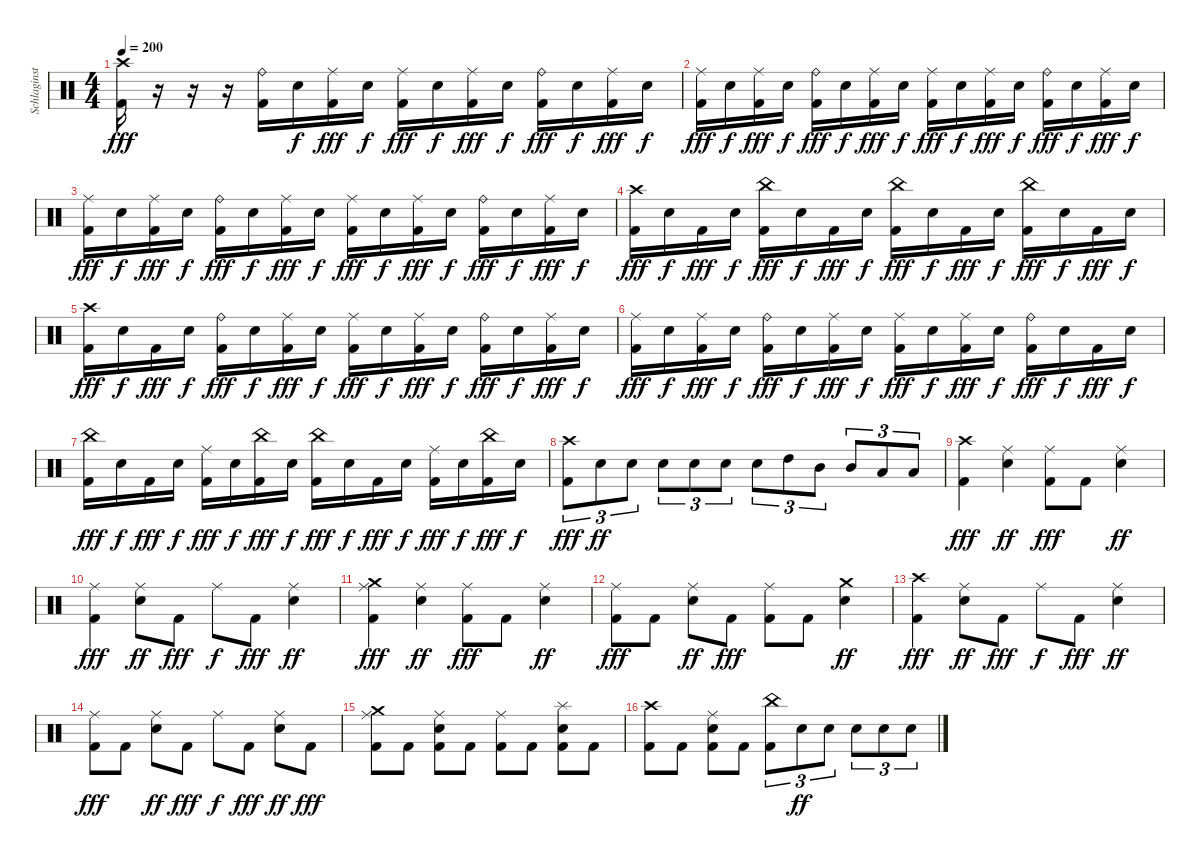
\track ("Schlaginstrumente - Auswahl" "Schlaginst") {instrument percussion}
\staff {score}
\articulation defaults
\ts (4 4)
\tempo 200
\clef neutral
\ks c
("Crash high (hit)" "Kick (hit) 2").16{dy fff} r.16 r.16 r.16 ("Ride (bell)" "Kick (hit) 2").16 "Snare (hit) 2".16{dy f} ("Ride (middle)" "Kick (hit) 2").16{dy fff} "Snare (hit) 2".16{dy f} ("Ride (middle)" "Kick (hit) 2").16{dy fff} "Snare (hit) 2".16{dy f} ("Ride (middle)" "Kick (hit) 2").16{dy fff} "Snare (hit) 2".16{dy f} ("Ride (bell)" "Kick (hit) 2").16{dy fff} "Snare (hit) 2".16{dy f} ("Ride (middle)" "Kick (hit) 2").16{dy fff} "Snare (hit) 2".16{dy f} |
("Ride (middle)" "Kick (hit) 2").16{dy fff} "Snare (hit) 2".16{dy f} ("Ride (middle)" "Kick (hit) 2").16{dy fff} "Snare (hit) 2".16{dy f} ("Ride (bell)" "Kick (hit) 2").16{dy fff} "Snare (hit) 2".16{dy f} ("Ride (middle)" "Kick (hit) 2").16{dy fff} "Snare (hit) 2".16{dy f} ("Ride (middle)" "Kick (hit) 2").16{dy fff} "Snare (hit) 2".16{dy f} ("Ride (middle)" "Kick (hit) 2").16{dy fff} "Snare (hit) 2".16{dy f} ("Ride (bell)" "Kick (hit) 2").16{dy fff} "Snare (hit) 2".16{dy f} ("Ride (middle)" "Kick (hit) 2").16{dy fff} "Snare (hit) 2".16{dy f} |
("Ride (middle)" "Kick (hit) 2").16{dy fff} "Snare (hit) 2".16{dy f} ("Ride (middle)" "Kick (hit) 2").16{dy fff} "Snare (hit) 2".16{dy f} ("Ride (bell)" "Kick (hit) 2").16{dy fff} "Snare (hit) 2".16{dy f} ("Ride (middle)" "Kick (hit) 2").16{dy fff} "Snare (hit) 2".16{dy f} ("Ride (middle)" "Kick (hit) 2").16{dy fff} "Snare (hit) 2".16{dy f} ("Ride (middle)" "Kick (hit) 2").16{dy fff} "Snare (hit) 2".16{dy f} ("Ride (bell)" "Kick (hit) 2").16{dy fff} "Snare (hit) 2".16{dy f} ("Ride (middle)" "Kick (hit) 2").16{dy fff} "Snare (hit) 2".16{dy f} |
("Crash high (hit)" "Kick (hit) 2").16{dy fff} "Snare (hit) 2".16{dy f} "Kick (hit) 2".16{dy fff} "Snare (hit) 2".16{dy f} ("China (hit)" "Kick (hit) 2").16{dy fff} "Snare (hit) 2".16{dy f} "Kick (hit) 2".16{dy fff} "Snare (hit) 2".16{dy f} ("China (hit)" "Kick (hit) 2").16{dy fff} "Snare (hit) 2".16{dy f} "Kick (hit) 2".16{dy fff} "Snare (hit) 2".16{dy f} ("China (hit)" "Kick (hit) 2").16{dy fff} "Snare (hit) 2".16{dy f} "Kick (hit) 2".16{dy fff} "Snare (hit) 2".16{dy f} |
("Crash high (hit)" "Kick (hit) 2").16{dy fff} "Snare (hit) 2".16{dy f} "Kick (hit) 2".16{dy fff} "Snare (hit) 2".16{dy f} ("Ride (bell)" "Kick (hit) 2").16{dy fff} "Snare (hit) 2".16{dy f} ("Ride (middle)" "Kick (hit) 2").16{dy fff} "Snare (hit) 2".16{dy f} ("Ride (middle)" "Kick (hit) 2").16{dy fff} "Snare (hit) 2".16{dy f} ("Ride (middle)" "Kick (hit) 2").16{dy fff} "Snare (hit) 2".16{dy f} ("Ride (bell)" "Kick (hit) 2").16{dy fff} "Snare (hit) 2".16{dy f} ("Ride (middle)" "Kick (hit) 2").16{dy fff} "Snare (hit) 2".16{dy f} |
("Ride (middle)" "Kick (hit) 2").16{dy fff} "Snare (hit) 2".16{dy f} ("Ride (middle)" "Kick (hit) 2").16{dy fff} "Snare (hit) 2".16{dy f} ("Ride (bell)" "Kick (hit) 2").16{dy fff} "Snare (hit) 2".16{dy f} ("Ride (middle)" "Kick (hit) 2").16{dy fff} "Snare (hit) 2".16{dy f} ("Ride (middle)" "Kick (hit) 2").16{dy fff} "Snare (hit) 2".16{dy f} ("Ride (middle)" "Kick (hit) 2").16{dy fff} "Snare (hit) 2".16{dy f} ("Ride (bell)" "Kick (hit) 2").16{dy fff} "Snare (hit) 2".16{dy f} "Kick (hit) 2".16{dy fff} "Snare (hit) 2".16{dy f} |
("China (hit)" "Kick (hit) 2").16{dy fff} "Snare (hit) 2".16{dy f} "Kick (hit) 2".16{dy fff} "Snare (hit) 2".16{dy f} ("Ride (middle)" "Kick (hit) 2").16{dy fff} "Snare (hit) 2".16{dy f} ("China (hit)" "Kick (hit) 2").16{dy fff} "Snare (hit) 2".16{dy f} ("China (hit)" "Kick (hit) 2").16{dy fff} "Snare (hit) 2".16{dy f} "Kick (hit) 2".16{dy fff} "Snare (hit) 2".16{dy f} ("Ride (middle)" "Kick (hit) 2").16{dy fff} "Snare (hit) 2".16{dy f} ("China (hit)" "Kick (hit) 2").16{dy fff} "Snare (hit) 2".16{dy f} |
("Crash high (hit)" "Kick (hit) 2").8{tu (3 2) dy fff} "Snare (hit) 2".8{tu (3 2) dy ff} "Snare (hit) 2".8{tu (3 2)} "Snare (hit) 2".8{tu (3 2)} "Snare (hit) 2".8{tu (3 2)} "Snare (hit) 2".8{tu (3 2)} "Snare (hit) 2".8{tu (3 2)} "High Tom (hit)".8{tu (3 2)} "Mid Tom (hit)".8{tu (3 2)} "Mid Tom (hit)".8{tu (3 2)} "Low Tom (hit)".8{tu (3 2)} "Low Tom (hit)".8{tu (3 2)} |
("Crash high (hit)" "Kick (hit) 2").4{dy fff} ("Ride (middle)" "Snare (hit) 2").4{dy ff} ("Ride (middle)" "Kick (hit) 2").8{dy fff} "Kick (hit) 2".8 ("Ride (middle)" "Snare (hit) 2").4{dy ff} |
("Ride (middle)" "Kick (hit) 2").4{dy fff} ("Ride (middle)" "Snare (hit) 2").8{dy ff} "Kick (hit) 2".8{dy fff} "Ride (middle)".8{dy f} "Kick (hit) 2".8{dy fff} ("Ride (middle)" "Snare (hit) 2").4{dy ff} |
("Crash medium (hit)" "Ride (middle)" "Kick (hit) 2").4{dy fff} ("Ride (middle)" "Snare (hit) 2").4{dy ff} ("Ride (middle)" "Kick (hit) 2").8{dy fff} "Kick (hit) 2".8 ("Ride (middle)" "Snare (hit) 2").4{dy ff} |
("Ride (middle)" "Kick (hit) 2").8{dy fff} "Kick (hit) 2".8 ("Ride (middle)" "Snare (hit) 2").8{dy ff} "Kick (hit) 2".8{dy fff} ("Ride (middle)" "Kick (hit) 2").8 "Kick (hit) 2".8 ("Crash medium (hit)" "Snare (hit) 2").4{dy ff} |
("Crash high (hit)" "Kick (hit) 2").4{dy fff} ("Ride (middle)" "Snare (hit) 2").8{dy ff} "Kick (hit) 2".8{dy fff} "Ride (middle)".8{dy f} "Kick (hit) 2".8{dy fff} ("Ride (middle)" "Snare (hit) 2").4{dy ff} |
("Ride (middle)" "Kick (hit) 2").8{dy fff} "Kick (hit) 2".8 ("Ride (middle)" "Snare (hit) 2").8{dy ff} "Kick (hit) 2".8{dy fff} "Ride (middle)".8{dy f} "Kick (hit) 2".8{dy fff} ("Ride (middle)" "Snare (hit) 2").8{dy ff} "Kick (hit) 2".8{dy fff} |
("Crash medium (hit)" "Ride (middle)" "Kick (hit) 2").8 "Kick (hit) 2".8 ("Ride (middle)" "Snare (hit) 2" "Kick (hit) 2").8 "Kick (hit) 2".8 ("Ride (middle)" "Kick (hit) 2").8 "Kick (hit) 2".8 ("Splash (hit)" "Snare (hit) 2" "Kick (hit) 2").8 "Kick (hit) 2".8 |
("Crash high (hit)" "Kick (hit) 2").8 "Kick (hit) 2".8 ("Ride (middle)" "Snare (hit) 2" "Kick (hit) 2").8 "Kick (hit) 2".8 ("China (hit)" "Kick (hit) 2").8{tu (3 2)} "Snare (hit) 2".8{tu (3 2) dy ff} "Snare (hit) 2".8{tu (3 2)} "Snare (hit) 2".8{tu (3 2)} "Snare (hit) 2".8{tu (3 2)} "Snare (hit) 2".8{tu (3 2)}
